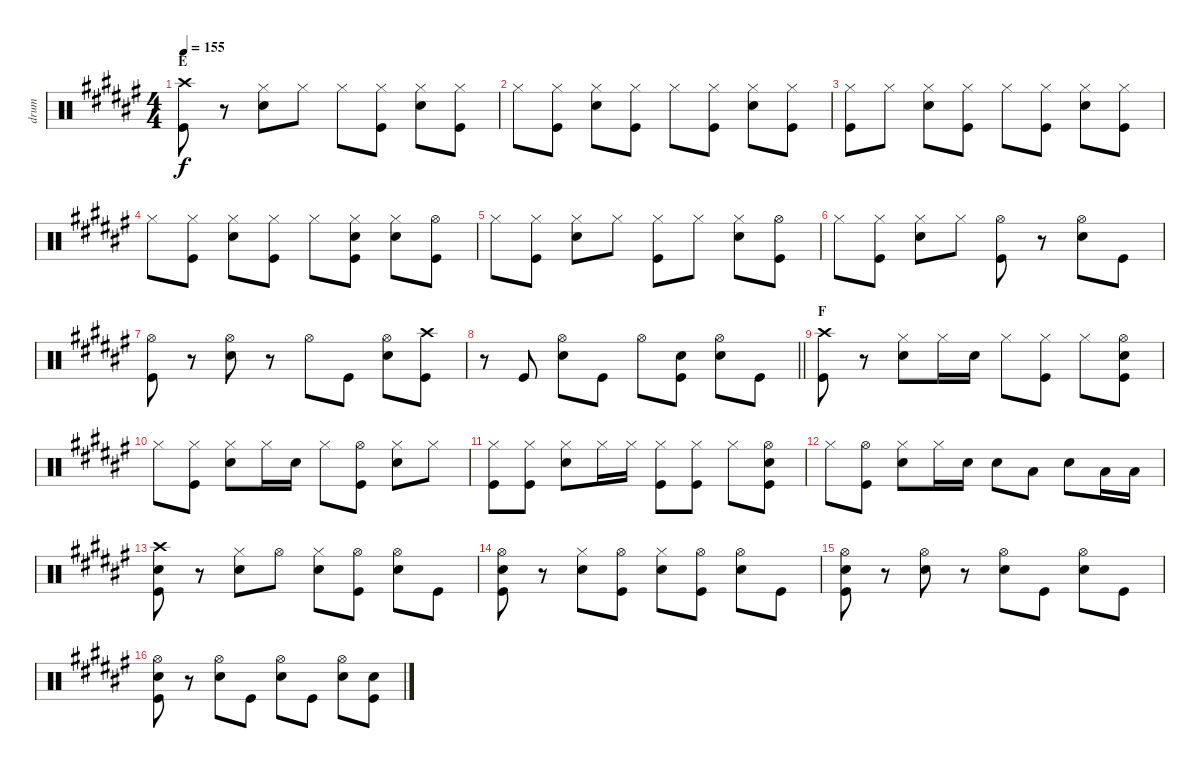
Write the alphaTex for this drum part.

\track ("drum" "drum") {instrument percussion}
\staff {score}
\articulation defaults
\ts (4 4)
\section ("" "E")
\tempo 155
\clef neutral
\ks f#
("Crash high (hit)" "Kick (hit)").8{dy f} r.8 ("Hi-Hat (closed)" "Snare (hit) 2").8 "Hi-Hat (closed)".8 "Hi-Hat (closed)".8 ("Hi-Hat (closed)" "Kick (hit)").8 ("Hi-Hat (closed)" "Snare (hit) 2").8 ("Hi-Hat (closed)" "Kick (hit)").8 |
"Hi-Hat (closed)".8 ("Hi-Hat (closed)" "Kick (hit)").8 ("Hi-Hat (closed)" "Snare (hit) 2").8 ("Hi-Hat (closed)" "Kick (hit)").8 "Hi-Hat (closed)".8 ("Hi-Hat (closed)" "Kick (hit)").8 ("Hi-Hat (closed)" "Snare (hit) 2").8 ("Hi-Hat (closed)" "Kick (hit)").8 |
("Hi-Hat (closed)" "Kick (hit)").8 "Hi-Hat (closed)".8 ("Hi-Hat (closed)" "Snare (hit) 2").8 ("Hi-Hat (closed)" "Kick (hit)").8 "Hi-Hat (closed)".8 ("Hi-Hat (closed)" "Kick (hit)").8 ("Hi-Hat (closed)" "Snare (hit) 2").8 ("Hi-Hat (closed)" "Kick (hit)").8 |
"Hi-Hat (closed)".8 ("Hi-Hat (closed)" "Kick (hit)").8 ("Hi-Hat (closed)" "Snare (hit) 2").8 ("Hi-Hat (closed)" "Kick (hit)").8 "Hi-Hat (closed)".8 ("Hi-Hat (closed)" "Snare (hit) 2" "Kick (hit)").8 ("Hi-Hat (closed)" "Snare (hit) 2").8 ("Hi-Hat (open)" "Kick (hit)").8 |
"Hi-Hat (closed)".8 ("Hi-Hat (closed)" "Kick (hit)").8 ("Hi-Hat (closed)" "Snare (hit) 2").8 "Hi-Hat (closed)".8 ("Hi-Hat (closed)" "Kick (hit)").8 "Hi-Hat (closed)".8 ("Hi-Hat (closed)" "Snare (hit) 2").8 ("Hi-Hat (open)" "Kick (hit)").8 |
"Hi-Hat (closed)".8 ("Hi-Hat (closed)" "Kick (hit)").8 ("Hi-Hat (closed)" "Snare (hit) 2").8 "Hi-Hat (closed)".8 ("Hi-Hat (open)" "Kick (hit)").8 r.8 ("Hi-Hat (open)" "Snare (hit) 2").8 "Kick (hit)".8 |
("Hi-Hat (open)" "Kick (hit)").8 r.8 ("Hi-Hat (open)" "Snare (hit) 2").8 r.8 "Hi-Hat (open)".8 "Kick (hit)".8 ("Hi-Hat (open)" "Snare (hit) 2").8 ("Crash high (hit)" "Kick (hit)").8 |
\barLineRight lightlight
r.8 "Kick (hit)".8 ("Hi-Hat (open)" "Snare (hit) 2").8 "Kick (hit)".8 "Hi-Hat (open)".8 ("Snare (hit) 2" "Kick (hit)").8 ("Hi-Hat (open)" "Snare (hit) 2").8 "Kick (hit)".8 |
\section ("" "F")
("Crash high (hit)" "Kick (hit)").8 r.8 ("Hi-Hat (closed)" "Snare (hit) 2").8 "Hi-Hat (closed)".16 "Snare (hit) 2".16 "Hi-Hat (closed)".8 ("Hi-Hat (closed)" "Kick (hit)").8 "Hi-Hat (closed)".8 ("Hi-Hat (open)" "Snare (hit) 2" "Kick (hit)").8 |
"Hi-Hat (closed)".8 ("Hi-Hat (closed)" "Kick (hit)").8 ("Hi-Hat (closed)" "Snare (hit) 2").8 "Hi-Hat (closed)".16 "Snare (hit) 2".16 "Hi-Hat (closed)".8 ("Hi-Hat (open)" "Kick (hit)").8 ("Hi-Hat (closed)" "Snare (hit) 2").8 "Hi-Hat (closed)".8 |
("Hi-Hat (closed)" "Kick (hit)").8 ("Hi-Hat (closed)" "Kick (hit)").8 ("Hi-Hat (closed)" "Snare (hit) 2").8 "Hi-Hat (closed)".16 "Hi-Hat (closed)".16 ("Hi-Hat (closed)" "Kick (hit)").8 ("Hi-Hat (closed)" "Kick (hit)").8 "Hi-Hat (closed)".8 ("Hi-Hat (open)" "Snare (hit) 2" "Kick (hit)").8 |
"Hi-Hat (closed)".8 ("Hi-Hat (open)" "Kick (hit)").8 ("Hi-Hat (closed)" "Snare (hit) 2").8 "Hi-Hat (closed)".16 "Snare (hit) 2".16 "Snare (hit) 2".8 "Low Tom (hit)".8 "Snare (hit) 2".8 "Low Tom (hit)".16 "Low Tom (hit)".16 |
("Crash high (hit)" "Snare (hit) 2" "Kick (hit)").8 r.8 ("Hi-Hat (closed)" "Snare (hit) 2").8 "Hi-Hat (open)".8 ("Hi-Hat (closed)" "Snare (hit) 2").8 ("Hi-Hat (open)" "Kick (hit)").8 ("Hi-Hat (open)" "Snare (hit) 2").8 "Kick (hit)".8 |
("Hi-Hat (open)" "Snare (hit) 2" "Kick (hit)").8 r.8 ("Hi-Hat (closed)" "Snare (hit) 2").8 ("Hi-Hat (open)" "Kick (hit)").8 ("Hi-Hat (closed)" "Snare (hit) 2").8 ("Hi-Hat (open)" "Kick (hit)").8 ("Hi-Hat (open)" "Snare (hit) 2").8 "Kick (hit)".8 |
("Hi-Hat (open)" "Snare (hit) 2" "Kick (hit)").8 r.8 ("Hi-Hat (open)" "Snare (hit) 2").8 r.8 ("Hi-Hat (open)" "Snare (hit) 2").8 "Kick (hit)".8 ("Hi-Hat (open)" "Snare (hit) 2").8 "Kick (hit)".8 |
("Hi-Hat (open)" "Snare (hit) 2" "Kick (hit)").8 r.8 ("Hi-Hat (open)" "Snare (hit) 2").8 "Kick (hit)".8 ("Hi-Hat (open)" "Snare (hit) 2").8 "Kick (hit)".8 ("Hi-Hat (open)" "Snare (hit) 2").8 ("Snare (hit) 2" "Kick (hit)").8
